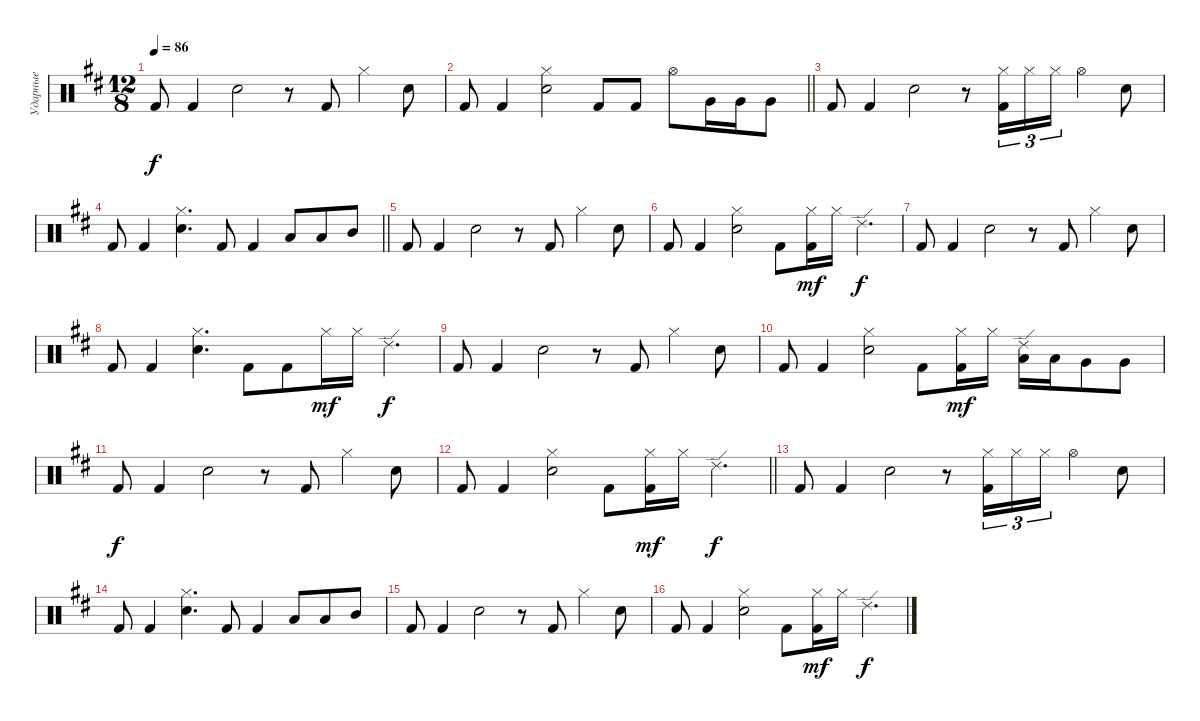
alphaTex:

\track ("Ударные" "Ударные") {instrument percussion}
\staff {score}
\articulation defaults
\ts (12 8)
\tempo 86
\clef neutral
\ks d "Kick (hit) 2".8{dy f} "Kick (hit) 2".4 "Electric Snare (hit)".2
r.8 "Kick (hit) 2".8 "Hi-Hat (closed)".4 "Snare (hit) 2".8 |
\barLineRight lightlight "Kick (hit) 2".8 "Kick (hit) 2".4
("Hi-Hat (closed)" "Snare (hit) 2").2 "Kick (hit) 2".8 "Kick (hit) 2".8 "Hi-Hat (open)".8 "Very Low Tom (hit)".16 "Very Low Tom (hit)".16 "Very Low Tom (hit)".8 |
"Kick (hit) 2".8 "Kick (hit) 2".4 "Electric Snare (hit)".2 r.8 ("Hi-Hat (closed)" "Kick (hit) 2").16{tu (3 2)} "Hi-Hat (closed)".16{tu (3 2)} "Hi-Hat (closed)".16{tu (3 2)} "Hi-Hat (open)".4 "Snare (hit) 2".8 |
\barLineRight lightlight "Kick (hit) 2".8 "Kick (hit) 2".4
("Hi-Hat (closed)" "Snare (hit) 2").4{d} "Kick (hit) 2".8 "Kick (hit) 2".4 "Low Floor Tom (hit)".8 "Low Floor Tom (hit)".8 "Mid Tom (hit)".8 |
"Kick (hit) 2".8 "Kick (hit) 2".4 "Electric Snare (hit)".2 r.8 "Kick (hit) 2".8 "Hi-Hat (closed)".4 "Snare (hit) 2".8 |
"Kick (hit) 2".8 "Kick (hit) 2".4 ("Snare (hit) 2" "Hi-Hat (closed)").2 "Kick (hit) 2".8 ("Kick (hit) 2" "Hi-Hat (closed)").16{dy mf} "Hi-Hat (closed)".16 "Ride (edge) 2".4{d dy f} |
"Kick (hit) 2".8 "Kick (hit) 2".4 "Electric Snare (hit)".2 r.8 "Kick (hit) 2".8 "Hi-Hat (closed)".4 "Snare (hit) 2".8 |
"Kick (hit) 2".8 "Kick (hit) 2".4 ("Snare (hit) 2" "Hi-Hat (closed)").4{d} "Kick (hit) 2".8 "Kick (hit) 2".8 "Hi-Hat (closed)".16{dy mf} "Hi-Hat (closed)".16 "Ride (edge) 2".4{d dy f} |
"Kick (hit) 2".8 "Kick (hit) 2".4 "Electric Snare (hit)".2 r.8 "Kick (hit) 2".8 "Hi-Hat (closed)".4 "Snare (hit) 2".8 |
"Kick (hit) 2".8 "Kick (hit) 2".4 ("Hi-Hat (closed)" "Snare (hit) 2").2 "Kick (hit) 2".8 ("Hi-Hat (closed)" "Kick (hit) 2").16{dy mf} "Hi-Hat (closed)".16 ("Low Floor Tom (hit)" "Ride (edge) 2").16 "Low Floor Tom (hit)".16 "Very Low Tom (hit)".8 "Very Low Tom (hit)".8 |
"Kick (hit) 2".8{dy f} "Kick (hit) 2".4 "Electric Snare (hit)".2 r.8 "Kick (hit) 2".8 "Hi-Hat (closed)".4 "Snare (hit) 2".8 |
\barLineRight lightlight "Kick (hit) 2".8 "Kick (hit) 2".4
("Hi-Hat (closed)" "Snare (hit) 2").2 "Kick (hit) 2".8 ("Hi-Hat (closed)" "Kick (hit) 2").16{dy mf} "Hi-Hat (closed)".16 "Ride (edge) 2".4{d dy f} |
"Kick (hit) 2".8 "Kick (hit) 2".4 "Electric Snare (hit)".2 r.8 ("Hi-Hat (closed)" "Kick (hit) 2").16{tu (3 2)} "Hi-Hat (closed)".16{tu (3 2)} "Hi-Hat (closed)".16{tu (3 2)} "Hi-Hat (open)".4 "Snare (hit) 2".8 |
"Kick (hit) 2".8 "Kick (hit) 2".4 ("Hi-Hat (closed)" "Snare (hit) 2").4{d} "Kick (hit) 2".8 "Kick (hit) 2".4 "Low Floor Tom (hit)".8 "Low Floor Tom (hit)".8 "Mid Tom (hit)".8 |
"Kick (hit) 2".8 "Kick (hit) 2".4 "Electric Snare (hit)".2 r.8 "Kick (hit) 2".8 "Hi-Hat (closed)".4 "Snare (hit) 2".8 |
"Kick (hit) 2".8 "Kick (hit) 2".4 ("Snare (hit) 2" "Hi-Hat (closed)").2 "Kick (hit) 2".8 ("Kick (hit) 2" "Hi-Hat (closed)").16{dy mf} "Hi-Hat (closed)".16 "Ride (edge) 2".4{d dy f}
